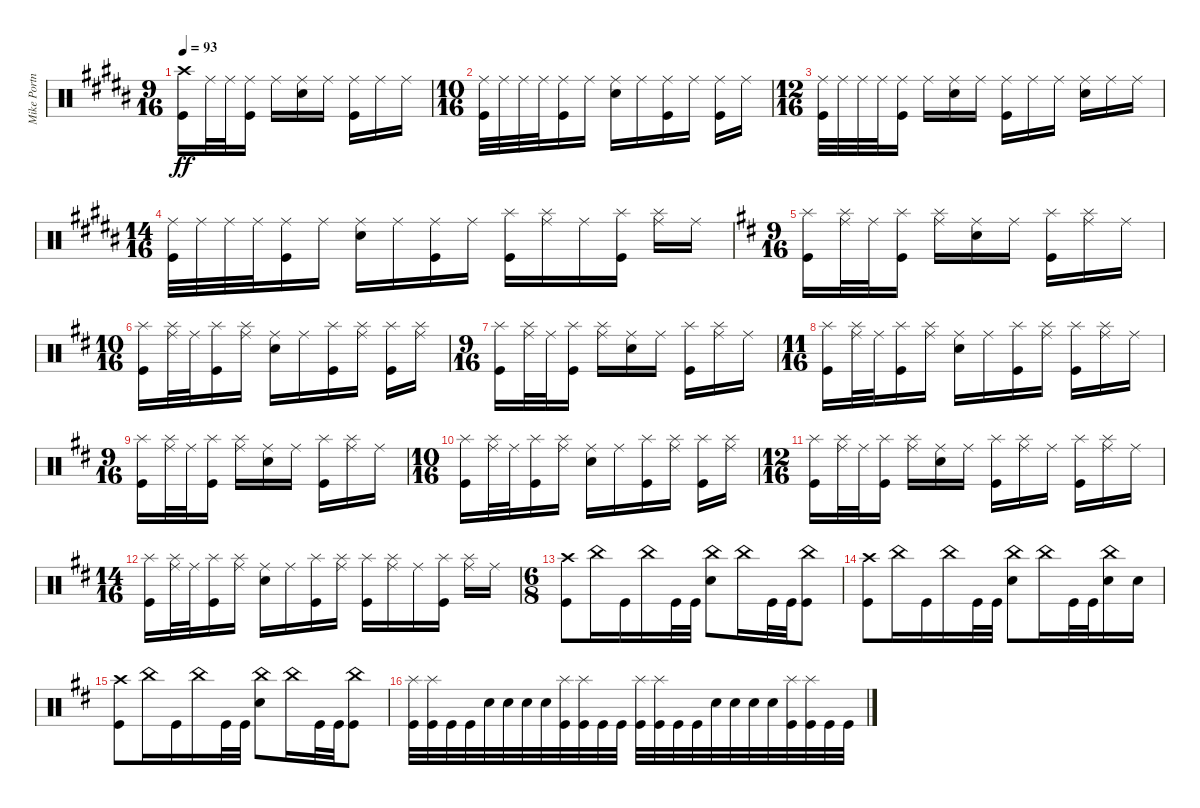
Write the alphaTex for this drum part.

\track ("Mike Portnoy - Drums" "Mike Portn") {instrument percussion}
\staff {score}
\articulation defaults
\ts (9 16)
\tempo 93
\clef neutral
\ks g#minor
("Crash high (hit)" "Kick (hit)").16{dy ff} "Ride (middle)".32 "Ride (middle)".32 ("Ride (middle)" "Kick (hit)").16 "Ride (middle)".16 ("Ride (middle)" "Snare (hit) 2").16 "Ride (middle)".16 ("Ride (middle)" "Kick (hit)").16 "Ride (middle)".16 "Ride (middle)".16 |
\ts (10 16)
("Ride (middle)" "Kick (hit)").32 "Ride (middle)".32 "Ride (middle)".32 "Ride (middle)".32 ("Ride (middle)" "Kick (hit)").16 "Ride (middle)".16 ("Ride (middle)" "Snare (hit) 2").16 "Ride (middle)".16 ("Ride (middle)" "Kick (hit)").16 "Ride (middle)".16 ("Ride (middle)" "Kick (hit)").16 "Ride (middle)".16 |
\ts (12 16)
("Ride (middle)" "Kick (hit)").32 "Ride (middle)".32 "Ride (middle)".32 "Ride (middle)".32 ("Ride (middle)" "Kick (hit)").16 "Ride (middle)".16 ("Ride (middle)" "Snare (hit) 2").16 "Ride (middle)".16 ("Ride (middle)" "Kick (hit)").16 "Ride (middle)".16 "Ride (middle)".16 ("Ride (middle)" "Snare (hit) 2").16 "Ride (middle)".16 "Ride (middle)".16 |
\ts (14 16)
("Ride (middle)" "Kick (hit)").32 "Ride (middle)".32 "Ride (middle)".32 "Ride (middle)".32 ("Ride (middle)" "Kick (hit)").16 "Ride (middle)".16 ("Ride (middle)" "Snare (hit) 2").16 "Ride (middle)".16 ("Ride (middle)" "Kick (hit)").16 "Ride (middle)".16 ("Splash (hit)" "Kick (hit)").16 ("Ride (middle)" "Splash (hit)").16 "Ride (middle)".16 ("Splash (hit)" "Kick (hit)").16 ("Ride (middle)" "Splash (hit)").16 "Ride (middle)".16 |
\ts (9 16)
\ks bminor
("Splash (hit)" "Kick (hit)").16 ("Ride (middle)" "Splash (hit)").32 "Ride (middle)".32 ("Splash (hit)" "Kick (hit)").16 ("Ride (middle)" "Splash (hit)").16 ("Ride (middle)" "Snare (hit) 2").16 "Ride (middle)".16 ("Splash (hit)" "Kick (hit)").16 ("Ride (middle)" "Splash (hit)").16 "Ride (middle)".16 |
\ts (10 16)
("Splash (hit)" "Kick (hit)").16 ("Ride (middle)" "Splash (hit)").32 "Ride (middle)".32 ("Splash (hit)" "Kick (hit)").16 ("Ride (middle)" "Splash (hit)").16 ("Ride (middle)" "Snare (hit) 2").16 "Ride (middle)".16 ("Splash (hit)" "Kick (hit)").16 ("Ride (middle)" "Splash (hit)").16 ("Splash (hit)" "Kick (hit)").16 ("Ride (middle)" "Splash (hit)").16 |
\ts (9 16)
("Splash (hit)" "Kick (hit)").16 ("Ride (middle)" "Splash (hit)").32 "Ride (middle)".32 ("Splash (hit)" "Kick (hit)").16 ("Ride (middle)" "Splash (hit)").16 ("Ride (middle)" "Snare (hit) 2").16 "Ride (middle)".16 ("Splash (hit)" "Kick (hit)").16 ("Ride (middle)" "Splash (hit)").16 "Ride (middle)".16 |
\ts (11 16)
("Splash (hit)" "Kick (hit)").16 ("Ride (middle)" "Splash (hit)").32 "Ride (middle)".32 ("Splash (hit)" "Kick (hit)").16 ("Ride (middle)" "Splash (hit)").16 ("Ride (middle)" "Snare (hit) 2").16 "Ride (middle)".16 ("Splash (hit)" "Kick (hit)").16 ("Ride (middle)" "Splash (hit)").16 ("Splash (hit)" "Kick (hit)").16 ("Ride (middle)" "Splash (hit)").16 "Ride (middle)".16 |
\ts (9 16)
("Splash (hit)" "Kick (hit)").16 ("Ride (middle)" "Splash (hit)").32 "Ride (middle)".32 ("Splash (hit)" "Kick (hit)").16 ("Ride (middle)" "Splash (hit)").16 ("Ride (middle)" "Snare (hit) 2").16 "Ride (middle)".16 ("Splash (hit)" "Kick (hit)").16 ("Ride (middle)" "Splash (hit)").16 "Ride (middle)".16 |
\ts (10 16)
("Splash (hit)" "Kick (hit)").16 ("Ride (middle)" "Splash (hit)").32 "Ride (middle)".32 ("Splash (hit)" "Kick (hit)").16 ("Ride (middle)" "Splash (hit)").16 ("Ride (middle)" "Snare (hit) 2").16 "Ride (middle)".16 ("Splash (hit)" "Kick (hit)").16 ("Ride (middle)" "Splash (hit)").16 ("Splash (hit)" "Kick (hit)").16 ("Ride (middle)" "Splash (hit)").16 |
\ts (12 16)
("Splash (hit)" "Kick (hit)").16 ("Ride (middle)" "Splash (hit)").32 "Ride (middle)".32 ("Splash (hit)" "Kick (hit)").16 ("Ride (middle)" "Splash (hit)").16 ("Ride (middle)" "Snare (hit) 2").16 "Ride (middle)".16 ("Splash (hit)" "Kick (hit)").16 ("Ride (middle)" "Splash (hit)").16 "Ride (middle)".16 ("Splash (hit)" "Kick (hit)").16 ("Ride (middle)" "Splash (hit)").16 "Ride (middle)".16 |
\ts (14 16)
("Splash (hit)" "Kick (hit)").16 ("Ride (middle)" "Splash (hit)").32 "Ride (middle)".32 ("Splash (hit)" "Kick (hit)").16 ("Ride (middle)" "Splash (hit)").16 ("Ride (middle)" "Snare (hit) 2").16 "Ride (middle)".16 ("Splash (hit)" "Kick (hit)").16 ("Ride (middle)" "Splash (hit)").16 ("Splash (hit)" "Kick (hit)").16 ("Ride (middle)" "Splash (hit)").16 "Ride (middle)".16 ("Splash (hit)" "Kick (hit)").16 ("Ride (middle)" "Splash (hit)").16 "Ride (middle)".16 |
\ts (6 8)
("Crash high (hit)" "Kick (hit)").8 "China (hit)".16 "Kick (hit)".16 "China (hit)".16 "Kick (hit)".32 "Kick (hit)".32 ("China (hit)" "Snare (hit) 2").8 "China (hit)".16 "Kick (hit)".32 "Kick (hit)".32 ("China (hit)" "Kick (hit)").8 |
("Crash high (hit)" "Kick (hit)").8 "China (hit)".16 "Kick (hit)".16 "China (hit)".16 "Kick (hit)".32 "Kick (hit)".32 ("China (hit)" "Snare (hit) 2").8 "China (hit)".16 "Kick (hit)".32 "Kick (hit)".32 ("China (hit)" "Snare (hit) 2").16 "Snare (hit) 2".16 |
("Crash high (hit)" "Kick (hit)").8 "China (hit)".16 "Kick (hit)".16 "China (hit)".16 "Kick (hit)".32 "Kick (hit)".32 ("China (hit)" "Snare (hit) 2").8 "China (hit)".16 "Kick (hit)".32 "Kick (hit)".32 ("China (hit)" "Kick (hit)").8 |
("Splash (hit)" "Kick (hit)").32 ("Splash (hit)" "Kick (hit)").32 "Kick (hit)".32 "Kick (hit)".32 "Snare (hit) 2".32 "Snare (hit) 2".32 "Snare (hit) 2".32 "Snare (hit) 2".32 ("Splash (hit)" "Kick (hit)").32 ("Splash (hit)" "Kick (hit)").32 "Kick (hit)".32 "Kick (hit)".32 ("Splash (hit)" "Kick (hit)").32 ("Splash (hit)" "Kick (hit)").32 "Kick (hit)".32 "Kick (hit)".32 "Snare (hit) 2".32 "Snare (hit) 2".32 "Snare (hit) 2".32 "Snare (hit) 2".32 ("Splash (hit)" "Kick (hit)").32 ("Splash (hit)" "Kick (hit)").32 "Kick (hit)".32 "Kick (hit)".32
